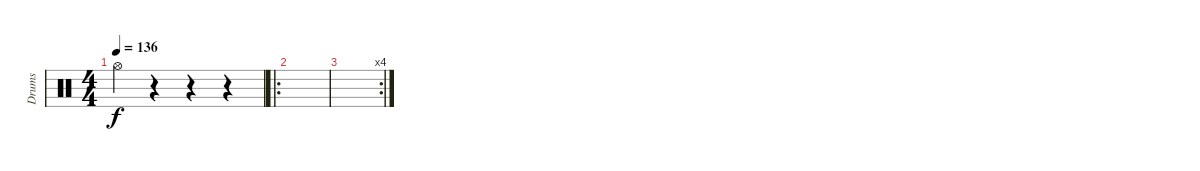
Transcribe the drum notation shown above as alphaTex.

\track ("Drums" "Drums") {instrument percussion}
\staff {score}
\articulation defaults
\ts (4 4)
\tempo 136
\clef neutral
\ks c "Hi-Hat (open)".4{dy f}
r.4 r.4 r.4 |
\ro
|
\rc 4
